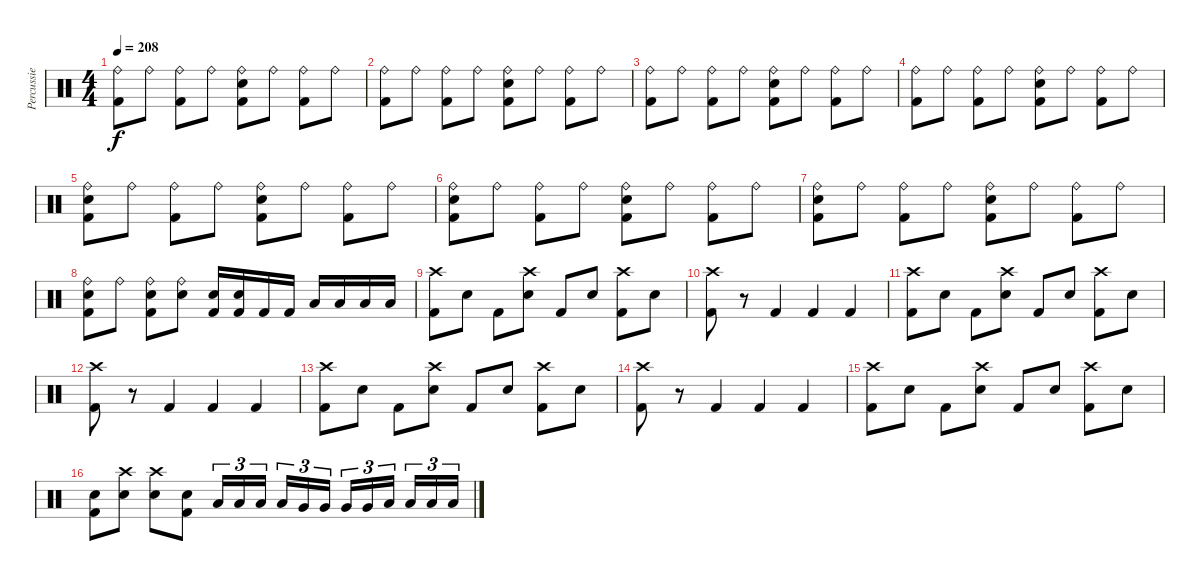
\track ("Percussie" "Percussie") {instrument percussion}
\staff {score}
\articulation defaults
\ts (4 4)
\tempo 208
\clef neutral
\ks c
("Ride (bell)" "Kick (hit) 2").8{dy f} "Ride (bell)".8 ("Ride (bell)" "Kick (hit) 2").8 "Ride (bell)".8 ("Ride (bell)" "Electric Snare (hit)" "Kick (hit) 2").8 "Ride (bell)".8 ("Ride (bell)" "Kick (hit) 2").8 "Ride (bell)".8 |
("Ride (bell)" "Kick (hit) 2").8 "Ride (bell)".8 ("Ride (bell)" "Kick (hit) 2").8 "Ride (bell)".8 ("Ride (bell)" "Electric Snare (hit)" "Kick (hit) 2").8 "Ride (bell)".8 ("Ride (bell)" "Kick (hit) 2").8 "Ride (bell)".8 |
("Ride (bell)" "Kick (hit) 2").8 "Ride (bell)".8 ("Ride (bell)" "Kick (hit) 2").8 "Ride (bell)".8 ("Ride (bell)" "Electric Snare (hit)" "Kick (hit) 2").8 "Ride (bell)".8 ("Ride (bell)" "Kick (hit) 2").8 "Ride (bell)".8 |
("Ride (bell)" "Kick (hit) 2").8 "Ride (bell)".8 ("Ride (bell)" "Kick (hit) 2").8 "Ride (bell)".8 ("Ride (bell)" "Electric Snare (hit)" "Kick (hit) 2").8 "Ride (bell)".8 ("Ride (bell)" "Kick (hit) 2").8 "Ride (bell)".8 |
("Ride (bell)" "Electric Snare (hit)" "Kick (hit) 2").8 "Ride (bell)".8 ("Ride (bell)" "Kick (hit) 2").8 "Ride (bell)".8 ("Ride (bell)" "Electric Snare (hit)" "Kick (hit) 2").8 "Ride (bell)".8 ("Ride (bell)" "Kick (hit) 2").8 "Ride (bell)".8 |
("Ride (bell)" "Electric Snare (hit)" "Kick (hit) 2").8 "Ride (bell)".8 ("Ride (bell)" "Kick (hit) 2").8 "Ride (bell)".8 ("Ride (bell)" "Electric Snare (hit)" "Kick (hit) 2").8 "Ride (bell)".8 ("Ride (bell)" "Kick (hit) 2").8 "Ride (bell)".8 |
("Ride (bell)" "Electric Snare (hit)" "Kick (hit) 2").8 "Ride (bell)".8 ("Ride (bell)" "Kick (hit) 2").8 "Ride (bell)".8 ("Ride (bell)" "Electric Snare (hit)" "Kick (hit) 2").8 "Ride (bell)".8 ("Ride (bell)" "Kick (hit) 2").8 "Ride (bell)".8 |
("Ride (bell)" "Electric Snare (hit)" "Kick (hit) 2").8 "Ride (bell)".8 ("Ride (bell)" "Electric Snare (hit)" "Kick (hit) 2").8 ("Ride (bell)" "Electric Snare (hit)").8 ("Electric Snare (hit)" "Kick (hit) 2").16 ("Electric Snare (hit)" "Kick (hit) 2").16 "Kick (hit) 2".16 "Kick (hit) 2".16 "Low Floor Tom (hit)".16 "Low Floor Tom (hit)".16 "Low Floor Tom (hit)".16 "Low Floor Tom (hit)".16 |
("Crash high (hit)" "Kick (hit) 2").8 "Electric Snare (hit)".8 "Kick (hit) 2".8 ("Crash high (hit)" "Electric Snare (hit)").8 "Kick (hit) 2".8 "Electric Snare (hit)".8 ("Crash high (hit)" "Kick (hit) 2").8 "Electric Snare (hit)".8 |
("Crash high (hit)" "Kick (hit) 2").8 r.8 "Kick (hit) 2".4 "Kick (hit) 2".4 "Kick (hit) 2".4 |
("Crash high (hit)" "Kick (hit) 2").8 "Electric Snare (hit)".8 "Kick (hit) 2".8 ("Crash high (hit)" "Electric Snare (hit)").8 "Kick (hit) 2".8 "Electric Snare (hit)".8 ("Crash high (hit)" "Kick (hit) 2").8 "Electric Snare (hit)".8 |
("Crash high (hit)" "Kick (hit) 2").8 r.8 "Kick (hit) 2".4 "Kick (hit) 2".4 "Kick (hit) 2".4 |
("Crash high (hit)" "Kick (hit) 2").8 "Electric Snare (hit)".8 "Kick (hit) 2".8 ("Crash high (hit)" "Electric Snare (hit)").8 "Kick (hit) 2".8 "Electric Snare (hit)".8 ("Crash high (hit)" "Kick (hit) 2").8 "Electric Snare (hit)".8 |
("Crash high (hit)" "Kick (hit) 2").8 r.8 "Kick (hit) 2".4 "Kick (hit) 2".4 "Kick (hit) 2".4 |
("Crash high (hit)" "Kick (hit) 2").8 "Electric Snare (hit)".8 "Kick (hit) 2".8 ("Crash high (hit)" "Electric Snare (hit)").8 "Kick (hit) 2".8 "Electric Snare (hit)".8 ("Crash high (hit)" "Kick (hit) 2").8 "Electric Snare (hit)".8 |
("Electric Snare (hit)" "Kick (hit) 2").8 ("Crash high (hit)" "Electric Snare (hit)").8 ("Crash high (hit)" "Electric Snare (hit)").8 ("Electric Snare (hit)" "Kick (hit) 2").8 "Low Tom (hit)".16{tu (3 2)} "Low Tom (hit)".16{tu (3 2)} "Low Tom (hit)".16{tu (3 2) beam splitsecondary} "Low Tom (hit)".16{tu (3 2)} "Very Low Tom (hit)".16{tu (3 2)} "Very Low Tom (hit)".16{tu (3 2)} "Very Low Tom (hit)".16{tu (3 2)} "Very Low Tom (hit)".16{tu (3 2)} "Low Floor Tom (hit)".16{tu (3 2) beam splitsecondary} "Low Floor Tom (hit)".16{tu (3 2)} "Low Floor Tom (hit)".16{tu (3 2)} "Low Floor Tom (hit)".16{tu (3 2)}
